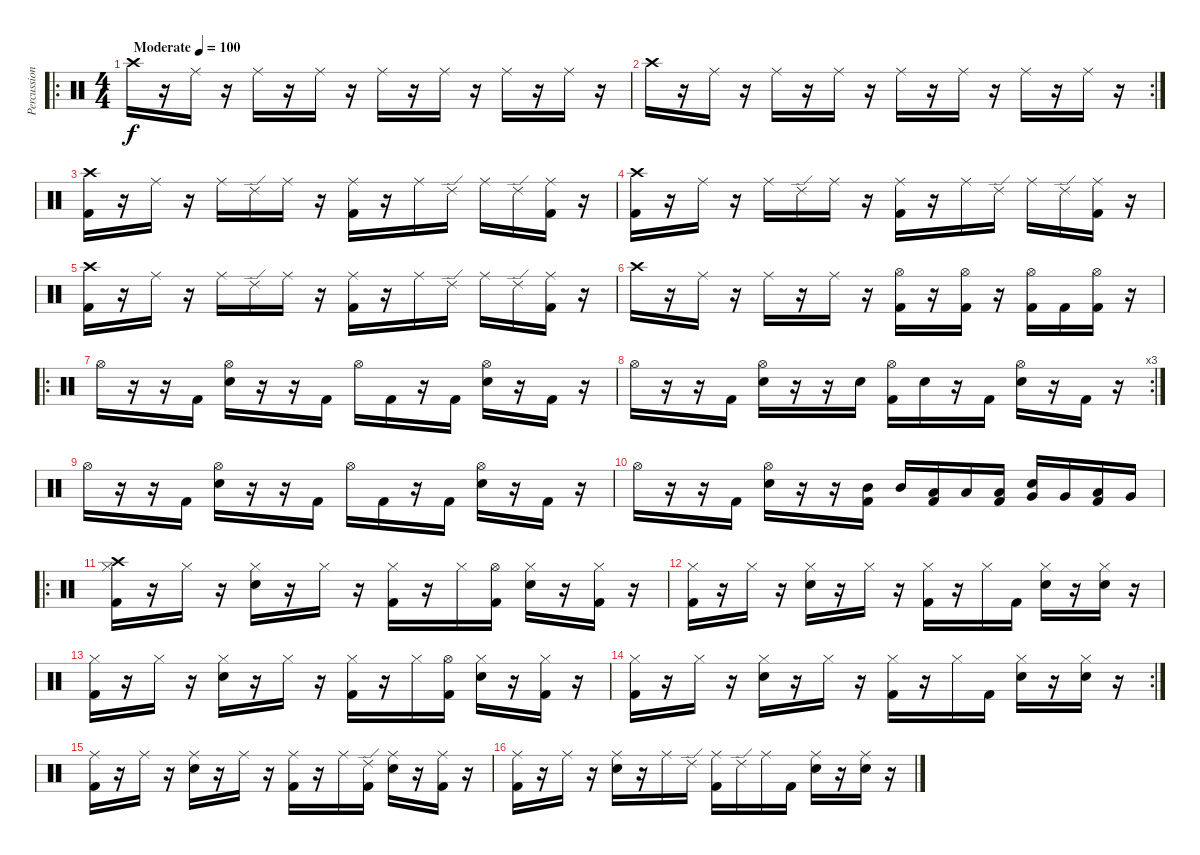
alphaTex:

\track ("Percussion" "Percussion") {instrument percussion}
\staff {score}
\articulation defaults
\ro
\ts (4 4)
\tempo (100 "Moderate")
\clef neutral
\ks c "Crash high (hit)".16{dy f}
r.16 "Ride (middle)".16 r.16 "Ride (middle)".16 r.16 "Ride (middle)".16 r.16 "Ride (middle)".16 r.16 "Ride (middle)".16 r.16 "Ride (middle)".16 r.16 "Ride (middle)".16 r.16 |
\rc 2 "Crash high (hit)".16
r.16 "Ride (middle)".16 r.16 "Ride (middle)".16 r.16 "Ride (middle)".16 r.16 "Ride (middle)".16 r.16 "Ride (middle)".16 r.16 "Ride (middle)".16 r.16 "Ride (middle)".16 r.16 |
("Kick (hit) 2" "Crash high (hit)").16 r.16 "Ride (middle)".16 r.16 "Ride (middle)".16 "Ride (edge) 2".16 "Ride (middle)".16 r.16 ("Kick (hit) 2" "Ride (middle)").16 r.16 "Ride (middle)".16 "Ride (edge) 2".16 "Ride (middle)".16 "Ride (edge) 2".16 ("Kick (hit) 2" "Ride (middle)").16 r.16 |
("Kick (hit) 2" "Crash high (hit)").16 r.16 "Ride (middle)".16 r.16 "Ride (middle)".16 "Ride (edge) 2".16 "Ride (middle)".16 r.16 ("Kick (hit) 2" "Ride (middle)").16 r.16 "Ride (middle)".16 "Ride (edge) 2".16 "Ride (middle)".16 "Ride (edge) 2".16 ("Kick (hit) 2" "Ride (middle)").16 r.16 |
("Kick (hit) 2" "Crash high (hit)").16 r.16 "Ride (middle)".16 r.16 "Ride (middle)".16 "Ride (edge) 2".16 "Ride (middle)".16 r.16 ("Kick (hit) 2" "Ride (middle)").16 r.16 "Ride (middle)".16 "Ride (edge) 2".16 "Ride (middle)".16 "Ride (edge) 2".16 ("Kick (hit) 2" "Ride (middle)").16 r.16 |
"Crash high (hit)".16 r.16 "Ride (middle)".16 r.16 "Ride (middle)".16 r.16 "Ride (middle)".16 r.16 ("Hi-Hat (open)" "Kick (hit) 2").16 r.16 ("Hi-Hat (open)" "Kick (hit) 2").16 r.16 ("Hi-Hat (open)" "Kick (hit) 2").16 "Kick (hit) 2".16 ("Hi-Hat (open)" "Kick (hit) 2").16 r.16 |
\ro "Hi-Hat (open)".16
r.16 r.16 "Kick (hit) 2".16 ("Hi-Hat (open)" "Electric Snare (hit)").16 r.16 r.16 "Kick (hit) 2".16 "Hi-Hat (open)".16 "Kick (hit) 2".16 r.16 "Kick (hit) 2".16 ("Hi-Hat (open)" "Electric Snare (hit)").16 r.16 "Kick (hit) 2".16 r.16 |
\rc 3 "Hi-Hat (open)".16
r.16 r.16 "Kick (hit) 2".16 ("Hi-Hat (open)" "Electric Snare (hit)").16 r.16 r.16 "Electric Snare (hit)".16 ("Hi-Hat (open)" "Kick (hit) 2").16 "Electric Snare (hit)".16 r.16 "Kick (hit) 2".16 ("Hi-Hat (open)" "Electric Snare (hit)").16 r.16 "Kick (hit) 2".16 r.16 |
"Hi-Hat (open)".16 r.16 r.16 "Kick (hit) 2".16 ("Hi-Hat (open)" "Electric Snare (hit)").16 r.16 r.16 "Kick (hit) 2".16 "Hi-Hat (open)".16 "Kick (hit) 2".16 r.16 "Kick (hit) 2".16 ("Hi-Hat (open)" "Electric Snare (hit)").16 r.16 "Kick (hit) 2".16 r.16 |
"Hi-Hat (open)".16 r.16 r.16 "Kick (hit) 2".16 ("Hi-Hat (open)" "Electric Snare (hit)").16 r.16 r.16 ("Mid Tom (hit)" "Kick (hit) 2").16 "Mid Tom (hit)".16 ("Low Tom (hit)" "Kick (hit) 2").16 "Low Tom (hit)".16 ("Low Tom (hit)" "Kick (hit) 2").16 ("Very Low Tom (hit)" "Electric Snare (hit)").16 "Very Low Tom (hit)".16 ("Low Floor Tom (hit)" "Kick (hit) 2").16 "Very Low Tom (hit)".16 |
\ro
("Kick (hit) 2" "Hi-Hat (closed)" "Crash high (hit)").16 r.16 "Hi-Hat (closed)".16 r.16 ("Electric Snare (hit)" "Hi-Hat (closed)").16 r.16 "Hi-Hat (closed)".16 r.16 ("Kick (hit) 2" "Hi-Hat (closed)").16 r.16 "Hi-Hat (closed)".16 ("Kick (hit) 2" "Hi-Hat (open)").16 ("Electric Snare (hit)" "Hi-Hat (closed)").16 r.16 ("Kick (hit) 2" "Hi-Hat (closed)").16 r.16 |
("Kick (hit) 2" "Hi-Hat (closed)").16 r.16 "Hi-Hat (closed)".16 r.16 ("Electric Snare (hit)" "Hi-Hat (closed)").16 r.16 "Hi-Hat (closed)".16 r.16 ("Kick (hit) 2" "Hi-Hat (closed)").16 r.16 "Hi-Hat (closed)".16 "Kick (hit) 2".16 ("Electric Snare (hit)" "Hi-Hat (closed)").16 r.16 ("Electric Snare (hit)" "Hi-Hat (closed)").16 r.16 |
("Kick (hit) 2" "Hi-Hat (closed)").16 r.16 "Hi-Hat (closed)".16 r.16 ("Electric Snare (hit)" "Hi-Hat (closed)").16 r.16 "Hi-Hat (closed)".16 r.16 ("Kick (hit) 2" "Hi-Hat (closed)").16 r.16 "Hi-Hat (closed)".16 ("Kick (hit) 2" "Hi-Hat (open)").16 ("Electric Snare (hit)" "Hi-Hat (closed)").16 r.16 ("Kick (hit) 2" "Hi-Hat (closed)").16 r.16 |
\rc 2
("Kick (hit) 2" "Hi-Hat (closed)").16 r.16 "Hi-Hat (closed)".16 r.16 ("Electric Snare (hit)" "Hi-Hat (closed)").16 r.16 "Hi-Hat (closed)".16 r.16 ("Kick (hit) 2" "Hi-Hat (closed)").16 r.16 "Hi-Hat (closed)".16 "Kick (hit) 2".16 ("Electric Snare (hit)" "Hi-Hat (closed)").16 r.16 ("Electric Snare (hit)" "Hi-Hat (closed)").16 r.16 |
("Kick (hit) 2" "Ride (middle)").16 r.16 "Ride (middle)".16 r.16 ("Electric Snare (hit)" "Ride (middle)").16 r.16 "Ride (middle)".16 r.16 ("Kick (hit) 2" "Ride (middle)").16 r.16 "Ride (middle)".16 ("Kick (hit) 2" "Ride (edge) 2").16 ("Electric Snare (hit)" "Ride (middle)").16 r.16 ("Kick (hit) 2" "Ride (middle)").16 r.16 |
("Kick (hit) 2" "Ride (middle)").16 r.16 "Ride (middle)".16 r.16 ("Electric Snare (hit)" "Ride (middle)").16 r.16 "Ride (middle)".16 "Ride (edge) 2".16 ("Kick (hit) 2" "Ride (middle)").16 "Ride (edge) 2".16 "Ride (middle)".16 "Kick (hit) 2".16 ("Electric Snare (hit)" "Ride (middle)").16 r.16 ("Electric Snare (hit)" "Ride (middle)").16 r.16
